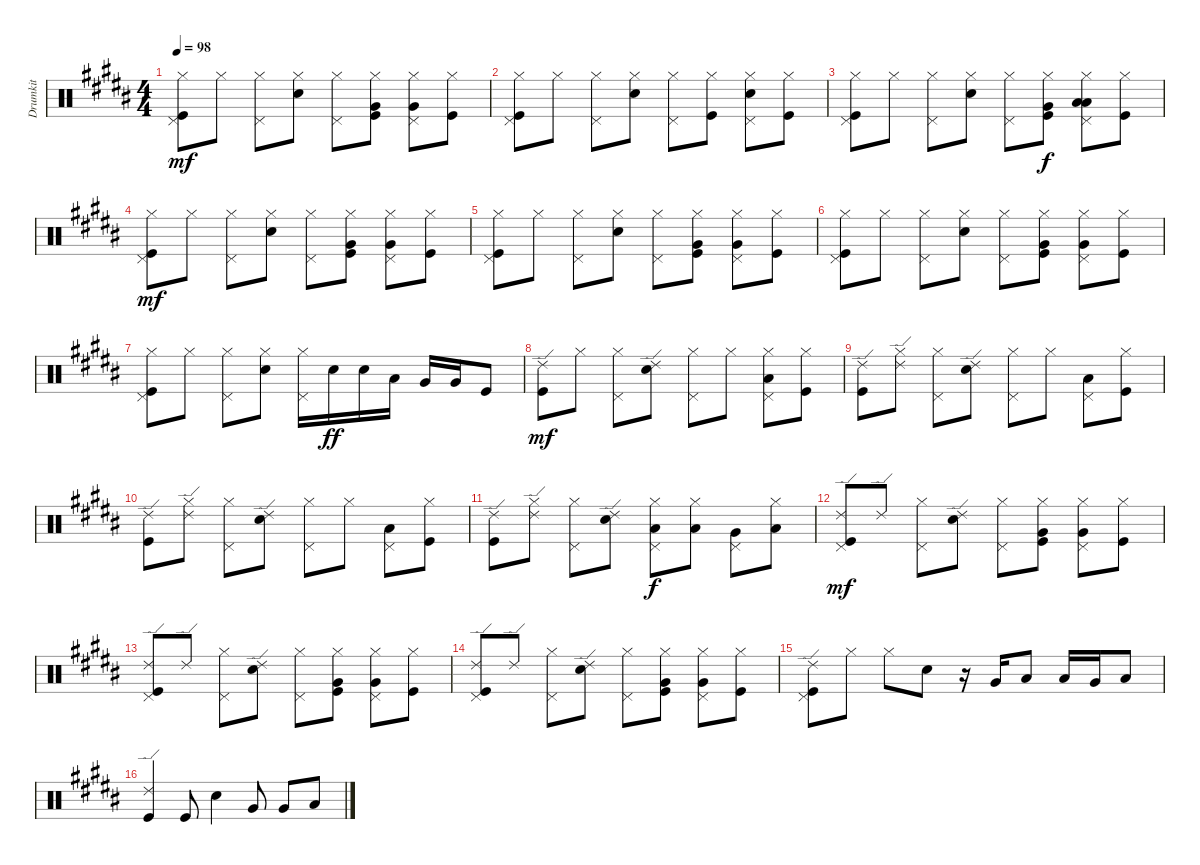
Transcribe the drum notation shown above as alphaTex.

\track ("Drumkit" "Drumkit") {instrument percussion}
\staff {score}
\articulation defaults
\ts (4 4)
\tempo 98
\clef neutral
\ks b
("Kick (hit)" "Pedal Hi-Hat (hit)" "Hi-Hat (closed)").8{dy mf} "Hi-Hat (closed)".8 ("Hi-Hat (closed)" "Pedal Hi-Hat (hit)").8 ("Snare (hit) 2" "Hi-Hat (closed)").8 ("Hi-Hat (closed)" "Pedal Hi-Hat (hit)").8 ("Hi-Hat (closed)" "Very Low Tom (hit)" "Kick (hit)").8 ("Very Low Tom (hit)" "Hi-Hat (closed)" "Pedal Hi-Hat (hit)").8 ("Kick (hit)" "Hi-Hat (closed)").8 |
("Hi-Hat (closed)" "Pedal Hi-Hat (hit)" "Kick (hit)").8 "Hi-Hat (closed)".8 ("Pedal Hi-Hat (hit)" "Hi-Hat (closed)").8 ("Snare (hit) 2" "Hi-Hat (closed)").8 ("Hi-Hat (closed)" "Pedal Hi-Hat (hit)").8 ("Hi-Hat (closed)" "Kick (hit)").8 ("Hi-Hat (closed)" "Pedal Hi-Hat (hit)" "Snare (hit) 2").8 ("Kick (hit)" "Hi-Hat (closed)").8 |
("Kick (hit)" "Pedal Hi-Hat (hit)" "Hi-Hat (closed)").8 "Hi-Hat (closed)".8 ("Hi-Hat (closed)" "Pedal Hi-Hat (hit)").8 ("Snare (hit) 2" "Hi-Hat (closed)").8 ("Hi-Hat (closed)" "Pedal Hi-Hat (hit)").8 ("Hi-Hat (closed)" "Very Low Tom (hit)" "Kick (hit)").8{dy f} ("Hi-Hat (closed)" "Pedal Hi-Hat (hit)" "Low Tom (hit)" "Low Floor Tom (hit)").8 ("Kick (hit)" "Hi-Hat (closed)").8 |
("Kick (hit)" "Pedal Hi-Hat (hit)" "Hi-Hat (closed)").8{dy mf} "Hi-Hat (closed)".8 ("Hi-Hat (closed)" "Pedal Hi-Hat (hit)").8 ("Snare (hit) 2" "Hi-Hat (closed)").8 ("Hi-Hat (closed)" "Pedal Hi-Hat (hit)").8 ("Hi-Hat (closed)" "Very Low Tom (hit)" "Kick (hit)").8 ("Very Low Tom (hit)" "Hi-Hat (closed)" "Pedal Hi-Hat (hit)").8 ("Kick (hit)" "Hi-Hat (closed)").8 |
("Kick (hit)" "Pedal Hi-Hat (hit)" "Hi-Hat (closed)").8 "Hi-Hat (closed)".8 ("Hi-Hat (closed)" "Pedal Hi-Hat (hit)").8 ("Snare (hit) 2" "Hi-Hat (closed)").8 ("Hi-Hat (closed)" "Pedal Hi-Hat (hit)").8 ("Hi-Hat (closed)" "Very Low Tom (hit)" "Kick (hit)").8 ("Very Low Tom (hit)" "Hi-Hat (closed)" "Pedal Hi-Hat (hit)").8 ("Kick (hit)" "Hi-Hat (closed)").8 |
("Kick (hit)" "Pedal Hi-Hat (hit)" "Hi-Hat (closed)").8 "Hi-Hat (closed)".8 ("Hi-Hat (closed)" "Pedal Hi-Hat (hit)").8 ("Snare (hit) 2" "Hi-Hat (closed)").8 ("Hi-Hat (closed)" "Pedal Hi-Hat (hit)").8 ("Hi-Hat (closed)" "Very Low Tom (hit)" "Kick (hit)").8 ("Very Low Tom (hit)" "Hi-Hat (closed)" "Pedal Hi-Hat (hit)").8 ("Kick (hit)" "Hi-Hat (closed)").8 |
("Kick (hit)" "Pedal Hi-Hat (hit)" "Hi-Hat (closed)").8 "Hi-Hat (closed)".8 ("Hi-Hat (closed)" "Pedal Hi-Hat (hit)").8 ("Snare (hit) 2" "Hi-Hat (closed)").8 ("Hi-Hat (closed)" "Pedal Hi-Hat (hit)").16 "Snare (hit) 2".16{dy ff} "Snare (hit) 2".16 "Low Tom (hit)".16 "Very Low Tom (hit)".16 "Very Low Tom (hit)".16 "Kick (hit)".8 |
("Kick (hit)" "Ride (edge) 2").8{dy mf} "Hi-Hat (closed)".8 ("Hi-Hat (closed)" "Pedal Hi-Hat (hit)").8 ("Snare (hit) 2" "Ride (edge) 2").8 ("Pedal Hi-Hat (hit)" "Hi-Hat (closed)").8 "Hi-Hat (closed)".8 ("Low Tom (hit)" "Pedal Hi-Hat (hit)" "Hi-Hat (closed)").8 ("Kick (hit)" "Hi-Hat (closed)").8 |
("Kick (hit)" "Ride (edge) 2").8 ("Hi-Hat (closed)" "Ride (edge) 2").8 ("Hi-Hat (closed)" "Pedal Hi-Hat (hit)").8 ("Snare (hit) 2" "Ride (edge) 2").8 ("Pedal Hi-Hat (hit)" "Hi-Hat (closed)").8 "Hi-Hat (closed)".8 ("Low Tom (hit)" "Pedal Hi-Hat (hit)").8 ("Kick (hit)" "Hi-Hat (closed)").8 |
("Kick (hit)" "Ride (edge) 2").8 ("Hi-Hat (closed)" "Ride (edge) 2").8 ("Hi-Hat (closed)" "Pedal Hi-Hat (hit)").8 ("Snare (hit) 2" "Ride (edge) 2").8 ("Pedal Hi-Hat (hit)" "Hi-Hat (closed)").8 "Hi-Hat (closed)".8 ("Low Tom (hit)" "Pedal Hi-Hat (hit)").8 ("Kick (hit)" "Hi-Hat (closed)").8 |
("Kick (hit)" "Ride (edge) 2").8 ("Hi-Hat (closed)" "Ride (edge) 2").8 ("Hi-Hat (closed)" "Pedal Hi-Hat (hit)").8 ("Snare (hit) 2" "Ride (edge) 2").8 ("Pedal Hi-Hat (hit)" "Hi-Hat (closed)" "Low Tom (hit)").8{dy f} ("Hi-Hat (closed)" "Low Tom (hit)").8 ("Pedal Hi-Hat (hit)" "Very Low Tom (hit)").8 ("Hi-Hat (closed)" "Low Floor Tom (hit)").8 |
("Kick (hit)" "Pedal Hi-Hat (hit)" "Ride (edge) 2").8{dy mf} "Ride (edge) 2".8 ("Hi-Hat (closed)" "Pedal Hi-Hat (hit)").8 ("Snare (hit) 2" "Ride (edge) 2").8 ("Hi-Hat (closed)" "Pedal Hi-Hat (hit)").8 ("Hi-Hat (closed)" "Very Low Tom (hit)" "Kick (hit)").8 ("Very Low Tom (hit)" "Hi-Hat (closed)" "Pedal Hi-Hat (hit)").8 ("Kick (hit)" "Hi-Hat (closed)").8 |
("Kick (hit)" "Pedal Hi-Hat (hit)" "Ride (edge) 2").8 "Ride (edge) 2".8 ("Hi-Hat (closed)" "Pedal Hi-Hat (hit)").8 ("Snare (hit) 2" "Ride (edge) 2").8 ("Hi-Hat (closed)" "Pedal Hi-Hat (hit)").8 ("Hi-Hat (closed)" "Very Low Tom (hit)" "Kick (hit)").8 ("Very Low Tom (hit)" "Hi-Hat (closed)" "Pedal Hi-Hat (hit)").8 ("Kick (hit)" "Hi-Hat (closed)").8 |
("Kick (hit)" "Pedal Hi-Hat (hit)" "Ride (edge) 2").8 "Ride (edge) 2".8 ("Hi-Hat (closed)" "Pedal Hi-Hat (hit)").8 ("Snare (hit) 2" "Ride (edge) 2").8 ("Hi-Hat (closed)" "Pedal Hi-Hat (hit)").8 ("Hi-Hat (closed)" "Very Low Tom (hit)" "Kick (hit)").8 ("Very Low Tom (hit)" "Hi-Hat (closed)" "Pedal Hi-Hat (hit)").8 ("Kick (hit)" "Hi-Hat (closed)").8 |
("Ride (edge) 2" "Kick (hit)" "Pedal Hi-Hat (hit)").8 "Hi-Hat (closed)".8 "Hi-Hat (closed)".8 "Snare (hit) 2".8 r.16 "Very Low Tom (hit)".16 "Low Tom (hit)".8 "Low Floor Tom (hit)".16 "Very Low Tom (hit)".16 "Low Floor Tom (hit)".8 |
("Kick (hit)" "Ride (edge) 2").4 "Kick (hit)".8 "Snare (hit) 2".4 "Very Low Tom (hit)".8 "Very Low Tom (hit)".8 "Low Floor Tom (hit)".8
